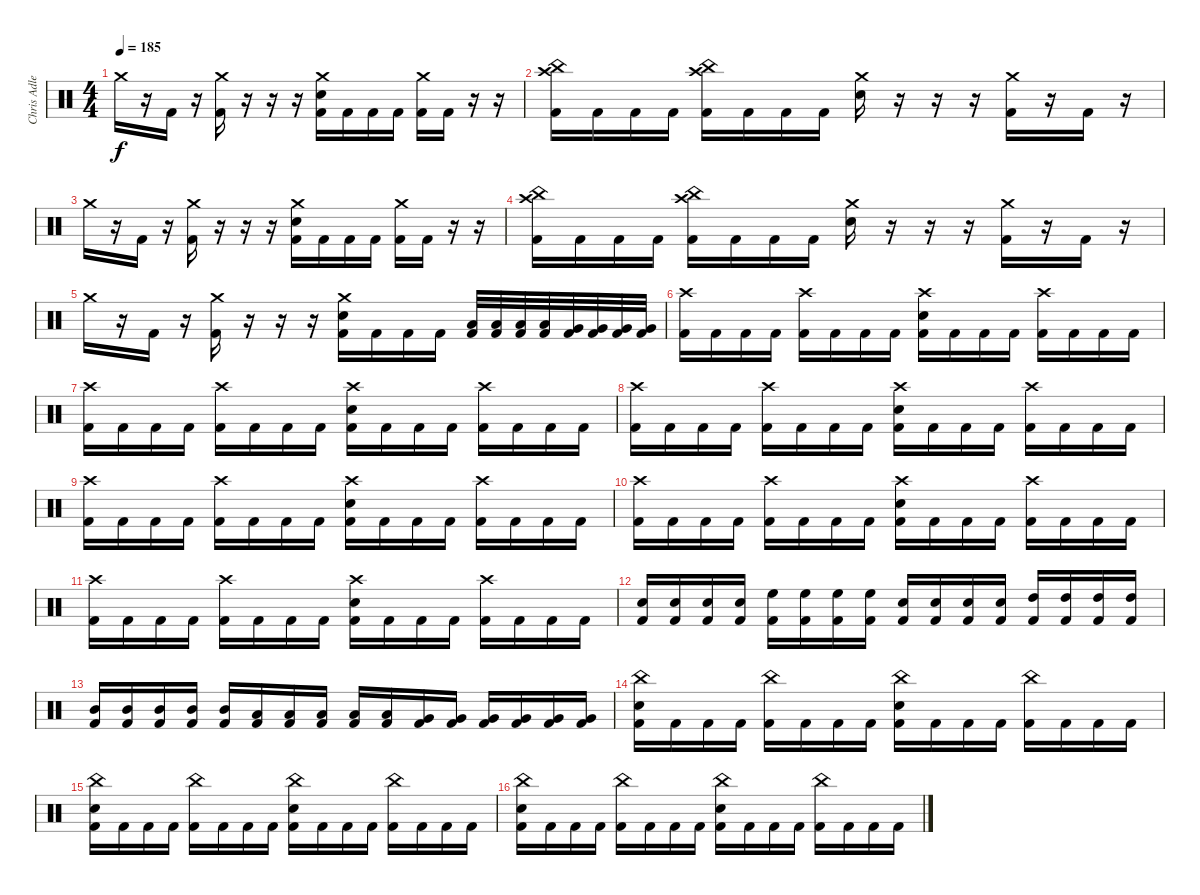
\track ("Chris Adler" "Chris Adle") {instrument percussion}
\staff {score}
\articulation defaults
\ts (4 4)
\tempo 185
\clef neutral
\ks c "Crash medium (hit)".16{dy f}
r.16 "Kick (hit) 2".16 r.16 ("Crash medium (hit)" "Kick (hit) 2").16 r.16 r.16 r.16 ("Crash medium (hit)" "Electric Snare (hit)" "Kick (hit) 2").16 "Kick (hit) 2".16 "Kick (hit) 2".16 "Kick (hit) 2".16 ("Crash medium (hit)" "Kick (hit) 2").16 "Kick (hit) 2".16 r.16 r.16 |
("Crash high (hit)" "China (hit)" "Kick (hit) 2").16 "Kick (hit) 2".16 "Kick (hit) 2".16 "Kick (hit) 2".16 ("Crash high (hit)" "China (hit)" "Kick (hit) 2").16 "Kick (hit) 2".16 "Kick (hit) 2".16 "Kick (hit) 2".16 ("Crash medium (hit)" "Electric Snare (hit)").16 r.16 r.16 r.16 ("Crash medium (hit)" "Kick (hit) 2").16 r.16 "Kick (hit) 2".16 r.16 |
"Crash medium (hit)".16 r.16 "Kick (hit) 2".16 r.16 ("Crash medium (hit)" "Kick (hit) 2").16 r.16 r.16 r.16 ("Crash medium (hit)" "Electric Snare (hit)" "Kick (hit) 2").16 "Kick (hit) 2".16 "Kick (hit) 2".16 "Kick (hit) 2".16 ("Crash medium (hit)" "Kick (hit) 2").16 "Kick (hit) 2".16 r.16 r.16 |
("Crash high (hit)" "China (hit)" "Kick (hit) 2").16 "Kick (hit) 2".16 "Kick (hit) 2".16 "Kick (hit) 2".16 ("Crash high (hit)" "China (hit)" "Kick (hit) 2").16 "Kick (hit) 2".16 "Kick (hit) 2".16 "Kick (hit) 2".16 ("Crash medium (hit)" "Electric Snare (hit)").16 r.16 r.16 r.16 ("Crash medium (hit)" "Kick (hit) 2").16 r.16 "Kick (hit) 2".16 r.16 |
"Crash medium (hit)".16 r.16 "Kick (hit) 2".16 r.16 ("Crash medium (hit)" "Kick (hit) 2").16 r.16 r.16 r.16 ("Crash medium (hit)" "Electric Snare (hit)" "Kick (hit) 2").16 "Kick (hit) 2".16 "Kick (hit) 2".16 "Kick (hit) 2".16 ("Low Tom (hit)" "Kick (hit) 2").32 ("Low Tom (hit)" "Kick (hit) 2").32 ("Low Tom (hit)" "Kick (hit) 2").32 ("Low Tom (hit)" "Kick (hit) 2").32 ("Very Low Tom (hit)" "Kick (hit) 2").32 ("Very Low Tom (hit)" "Kick (hit) 2").32 ("Very Low Tom (hit)" "Kick (hit) 2").32 ("Very Low Tom (hit)" "Kick (hit) 2").32 |
("Crash high (hit)" "Kick (hit) 2").16 "Kick (hit) 2".16 "Kick (hit) 2".16 "Kick (hit) 2".16 ("Crash high (hit)" "Kick (hit) 2").16 "Kick (hit) 2".16 "Kick (hit) 2".16 "Kick (hit) 2".16 ("Crash high (hit)" "Electric Snare (hit)" "Kick (hit) 2").16 "Kick (hit) 2".16 "Kick (hit) 2".16 "Kick (hit) 2".16 ("Crash high (hit)" "Kick (hit) 2").16 "Kick (hit) 2".16 "Kick (hit) 2".16 "Kick (hit) 2".16 |
("Crash high (hit)" "Kick (hit) 2").16 "Kick (hit) 2".16 "Kick (hit) 2".16 "Kick (hit) 2".16 ("Crash high (hit)" "Kick (hit) 2").16 "Kick (hit) 2".16 "Kick (hit) 2".16 "Kick (hit) 2".16 ("Crash high (hit)" "Electric Snare (hit)" "Kick (hit) 2").16 "Kick (hit) 2".16 "Kick (hit) 2".16 "Kick (hit) 2".16 ("Crash high (hit)" "Kick (hit) 2").16 "Kick (hit) 2".16 "Kick (hit) 2".16 "Kick (hit) 2".16 |
("Crash high (hit)" "Kick (hit) 2").16 "Kick (hit) 2".16 "Kick (hit) 2".16 "Kick (hit) 2".16 ("Crash high (hit)" "Kick (hit) 2").16 "Kick (hit) 2".16 "Kick (hit) 2".16 "Kick (hit) 2".16 ("Crash high (hit)" "Electric Snare (hit)" "Kick (hit) 2").16 "Kick (hit) 2".16 "Kick (hit) 2".16 "Kick (hit) 2".16 ("Crash high (hit)" "Kick (hit) 2").16 "Kick (hit) 2".16 "Kick (hit) 2".16 "Kick (hit) 2".16 |
("Crash high (hit)" "Kick (hit) 2").16 "Kick (hit) 2".16 "Kick (hit) 2".16 "Kick (hit) 2".16 ("Crash high (hit)" "Kick (hit) 2").16 "Kick (hit) 2".16 "Kick (hit) 2".16 "Kick (hit) 2".16 ("Crash high (hit)" "Electric Snare (hit)" "Kick (hit) 2").16 "Kick (hit) 2".16 "Kick (hit) 2".16 "Kick (hit) 2".16 ("Crash high (hit)" "Kick (hit) 2").16 "Kick (hit) 2".16 "Kick (hit) 2".16 "Kick (hit) 2".16 |
("Crash high (hit)" "Kick (hit) 2").16 "Kick (hit) 2".16 "Kick (hit) 2".16 "Kick (hit) 2".16 ("Crash high (hit)" "Kick (hit) 2").16 "Kick (hit) 2".16 "Kick (hit) 2".16 "Kick (hit) 2".16 ("Crash high (hit)" "Electric Snare (hit)" "Kick (hit) 2").16 "Kick (hit) 2".16 "Kick (hit) 2".16 "Kick (hit) 2".16 ("Crash high (hit)" "Kick (hit) 2").16 "Kick (hit) 2".16 "Kick (hit) 2".16 "Kick (hit) 2".16 |
("Crash high (hit)" "Kick (hit) 2").16 "Kick (hit) 2".16 "Kick (hit) 2".16 "Kick (hit) 2".16 ("Crash high (hit)" "Kick (hit) 2").16 "Kick (hit) 2".16 "Kick (hit) 2".16 "Kick (hit) 2".16 ("Crash high (hit)" "Electric Snare (hit)" "Kick (hit) 2").16 "Kick (hit) 2".16 "Kick (hit) 2".16 "Kick (hit) 2".16 ("Crash high (hit)" "Kick (hit) 2").16 "Kick (hit) 2".16 "Kick (hit) 2".16 "Kick (hit) 2".16 |
("Electric Snare (hit)" "Kick (hit) 2").16 ("Electric Snare (hit)" "Kick (hit) 2").16 ("Electric Snare (hit)" "Kick (hit) 2").16 ("Electric Snare (hit)" "Kick (hit) 2").16 ("High Floor Tom (hit)" "Kick (hit) 2").16 ("High Floor Tom (hit)" "Kick (hit) 2").16 ("High Floor Tom (hit)" "Kick (hit) 2").16 ("High Floor Tom (hit)" "Kick (hit) 2").16 ("Electric Snare (hit)" "Kick (hit) 2").16 ("Electric Snare (hit)" "Kick (hit) 2").16 ("Electric Snare (hit)" "Kick (hit) 2").16 ("Electric Snare (hit)" "Kick (hit) 2").16 ("High Tom (hit)" "Kick (hit) 2").16 ("High Tom (hit)" "Kick (hit) 2").16 ("High Tom (hit)" "Kick (hit) 2").16 ("High Tom (hit)" "Kick (hit) 2").16 |
("Mid Tom (hit)" "Kick (hit) 2").16 ("Mid Tom (hit)" "Kick (hit) 2").16 ("Mid Tom (hit)" "Kick (hit) 2").16 ("Mid Tom (hit)" "Kick (hit) 2").16 ("Mid Tom (hit)" "Kick (hit) 2").16 ("Low Tom (hit)" "Kick (hit) 2").16 ("Low Tom (hit)" "Kick (hit) 2").16 ("Low Tom (hit)" "Kick (hit) 2").16 ("Low Tom (hit)" "Kick (hit) 2").16 ("Low Tom (hit)" "Kick (hit) 2").16 ("Very Low Tom (hit)" "Kick (hit) 2").16 ("Very Low Tom (hit)" "Kick (hit) 2").16 ("Very Low Tom (hit)" "Kick (hit) 2").16 ("Very Low Tom (hit)" "Kick (hit) 2").16 ("Very Low Tom (hit)" "Kick (hit) 2").16 ("Very Low Tom (hit)" "Kick (hit) 2").16 |
("China (hit)" "Electric Snare (hit)" "Kick (hit) 2").16 "Kick (hit) 2".16 "Kick (hit) 2".16 "Kick (hit) 2".16 ("China (hit)" "Kick (hit) 2").16 "Kick (hit) 2".16 "Kick (hit) 2".16 "Kick (hit) 2".16 ("China (hit)" "Electric Snare (hit)" "Kick (hit) 2").16 "Kick (hit) 2".16 "Kick (hit) 2".16 "Kick (hit) 2".16 ("China (hit)" "Kick (hit) 2").16 "Kick (hit) 2".16 "Kick (hit) 2".16 "Kick (hit) 2".16 |
("China (hit)" "Electric Snare (hit)" "Kick (hit) 2").16 "Kick (hit) 2".16 "Kick (hit) 2".16 "Kick (hit) 2".16 ("China (hit)" "Kick (hit) 2").16 "Kick (hit) 2".16 "Kick (hit) 2".16 "Kick (hit) 2".16 ("China (hit)" "Electric Snare (hit)" "Kick (hit) 2").16 "Kick (hit) 2".16 "Kick (hit) 2".16 "Kick (hit) 2".16 ("China (hit)" "Kick (hit) 2").16 "Kick (hit) 2".16 "Kick (hit) 2".16 "Kick (hit) 2".16 |
("China (hit)" "Electric Snare (hit)" "Kick (hit) 2").16 "Kick (hit) 2".16 "Kick (hit) 2".16 "Kick (hit) 2".16 ("China (hit)" "Kick (hit) 2").16 "Kick (hit) 2".16 "Kick (hit) 2".16 "Kick (hit) 2".16 ("China (hit)" "Electric Snare (hit)" "Kick (hit) 2").16 "Kick (hit) 2".16 "Kick (hit) 2".16 "Kick (hit) 2".16 ("China (hit)" "Kick (hit) 2").16 "Kick (hit) 2".16 "Kick (hit) 2".16 "Kick (hit) 2".16
